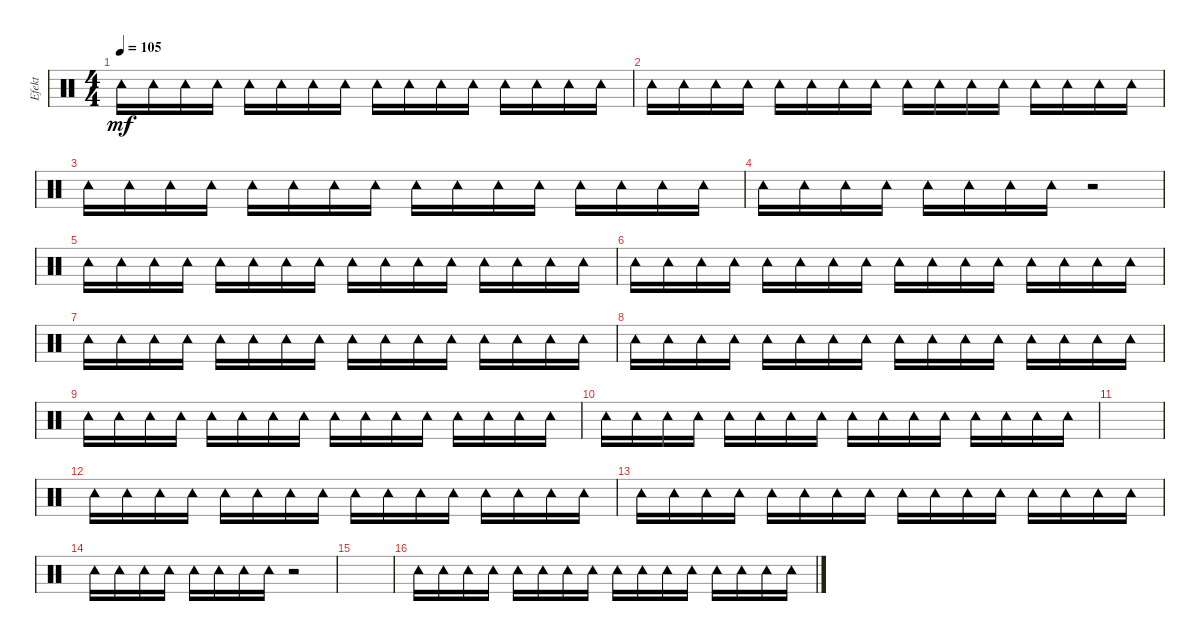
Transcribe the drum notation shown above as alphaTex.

\track ("Efekt" "Efekt") {instrument percussion}
\staff {score}
\articulation defaults
\ts (4 4)
\tempo 105
\clef neutral
\ks c "Tambourine (hit)".16{dy mf} "Tambourine (hit)".16 "Tambourine (hit)".16 "Tambourine (hit)".16 "Tambourine (hit)".16 "Tambourine (hit)".16 "Tambourine (hit)".16 "Tambourine (hit)".16 "Tambourine (hit)".16 "Tambourine (hit)".16 "Tambourine (hit)".16 "Tambourine (hit)".16 "Tambourine (hit)".16 "Tambourine (hit)".16 "Tambourine (hit)".16 "Tambourine (hit)".16
|
"Tambourine (hit)".16 "Tambourine (hit)".16 "Tambourine (hit)".16 "Tambourine (hit)".16 "Tambourine (hit)".16 "Tambourine (hit)".16 "Tambourine (hit)".16 "Tambourine (hit)".16 "Tambourine (hit)".16 "Tambourine (hit)".16 "Tambourine (hit)".16 "Tambourine (hit)".16 "Tambourine (hit)".16 "Tambourine (hit)".16 "Tambourine (hit)".16 "Tambourine (hit)".16 |
"Tambourine (hit)".16 "Tambourine (hit)".16 "Tambourine (hit)".16 "Tambourine (hit)".16 "Tambourine (hit)".16 "Tambourine (hit)".16 "Tambourine (hit)".16 "Tambourine (hit)".16 "Tambourine (hit)".16 "Tambourine (hit)".16 "Tambourine (hit)".16 "Tambourine (hit)".16 "Tambourine (hit)".16 "Tambourine (hit)".16 "Tambourine (hit)".16 "Tambourine (hit)".16 |
"Tambourine (hit)".16 "Tambourine (hit)".16 "Tambourine (hit)".16 "Tambourine (hit)".16 "Tambourine (hit)".16 "Tambourine (hit)".16 "Tambourine (hit)".16 "Tambourine (hit)".16 r.2 |
"Tambourine (hit)".16 "Tambourine (hit)".16 "Tambourine (hit)".16 "Tambourine (hit)".16 "Tambourine (hit)".16 "Tambourine (hit)".16 "Tambourine (hit)".16 "Tambourine (hit)".16 "Tambourine (hit)".16 "Tambourine (hit)".16 "Tambourine (hit)".16 "Tambourine (hit)".16 "Tambourine (hit)".16 "Tambourine (hit)".16 "Tambourine (hit)".16 "Tambourine (hit)".16 |
"Tambourine (hit)".16 "Tambourine (hit)".16 "Tambourine (hit)".16 "Tambourine (hit)".16 "Tambourine (hit)".16 "Tambourine (hit)".16 "Tambourine (hit)".16 "Tambourine (hit)".16 "Tambourine (hit)".16 "Tambourine (hit)".16 "Tambourine (hit)".16 "Tambourine (hit)".16 "Tambourine (hit)".16 "Tambourine (hit)".16 "Tambourine (hit)".16 "Tambourine (hit)".16 |
"Tambourine (hit)".16 "Tambourine (hit)".16 "Tambourine (hit)".16 "Tambourine (hit)".16 "Tambourine (hit)".16 "Tambourine (hit)".16 "Tambourine (hit)".16 "Tambourine (hit)".16 "Tambourine (hit)".16 "Tambourine (hit)".16 "Tambourine (hit)".16 "Tambourine (hit)".16 "Tambourine (hit)".16 "Tambourine (hit)".16 "Tambourine (hit)".16 "Tambourine (hit)".16 |
"Tambourine (hit)".16 "Tambourine (hit)".16 "Tambourine (hit)".16 "Tambourine (hit)".16 "Tambourine (hit)".16 "Tambourine (hit)".16 "Tambourine (hit)".16 "Tambourine (hit)".16 "Tambourine (hit)".16 "Tambourine (hit)".16 "Tambourine (hit)".16 "Tambourine (hit)".16 "Tambourine (hit)".16 "Tambourine (hit)".16 "Tambourine (hit)".16 "Tambourine (hit)".16 |
"Tambourine (hit)".16 "Tambourine (hit)".16 "Tambourine (hit)".16 "Tambourine (hit)".16 "Tambourine (hit)".16 "Tambourine (hit)".16 "Tambourine (hit)".16 "Tambourine (hit)".16 "Tambourine (hit)".16 "Tambourine (hit)".16 "Tambourine (hit)".16 "Tambourine (hit)".16 "Tambourine (hit)".16 "Tambourine (hit)".16 "Tambourine (hit)".16 "Tambourine (hit)".16 |
"Tambourine (hit)".16 "Tambourine (hit)".16 "Tambourine (hit)".16 "Tambourine (hit)".16 "Tambourine (hit)".16 "Tambourine (hit)".16 "Tambourine (hit)".16 "Tambourine (hit)".16 "Tambourine (hit)".16 "Tambourine (hit)".16 "Tambourine (hit)".16 "Tambourine (hit)".16 "Tambourine (hit)".16 "Tambourine (hit)".16 "Tambourine (hit)".16 "Tambourine (hit)".16 |
|
"Tambourine (hit)".16 "Tambourine (hit)".16 "Tambourine (hit)".16 "Tambourine (hit)".16 "Tambourine (hit)".16 "Tambourine (hit)".16 "Tambourine (hit)".16 "Tambourine (hit)".16 "Tambourine (hit)".16 "Tambourine (hit)".16 "Tambourine (hit)".16 "Tambourine (hit)".16 "Tambourine (hit)".16 "Tambourine (hit)".16 "Tambourine (hit)".16 "Tambourine (hit)".16 |
"Tambourine (hit)".16 "Tambourine (hit)".16 "Tambourine (hit)".16 "Tambourine (hit)".16 "Tambourine (hit)".16 "Tambourine (hit)".16 "Tambourine (hit)".16 "Tambourine (hit)".16 "Tambourine (hit)".16 "Tambourine (hit)".16 "Tambourine (hit)".16 "Tambourine (hit)".16 "Tambourine (hit)".16 "Tambourine (hit)".16 "Tambourine (hit)".16 "Tambourine (hit)".16 |
"Tambourine (hit)".16 "Tambourine (hit)".16 "Tambourine (hit)".16 "Tambourine (hit)".16 "Tambourine (hit)".16 "Tambourine (hit)".16 "Tambourine (hit)".16 "Tambourine (hit)".16 r.2 |
|
"Tambourine (hit)".16 "Tambourine (hit)".16 "Tambourine (hit)".16 "Tambourine (hit)".16 "Tambourine (hit)".16 "Tambourine (hit)".16 "Tambourine (hit)".16 "Tambourine (hit)".16 "Tambourine (hit)".16 "Tambourine (hit)".16 "Tambourine (hit)".16 "Tambourine (hit)".16 "Tambourine (hit)".16 "Tambourine (hit)".16 "Tambourine (hit)".16 "Tambourine (hit)".16
